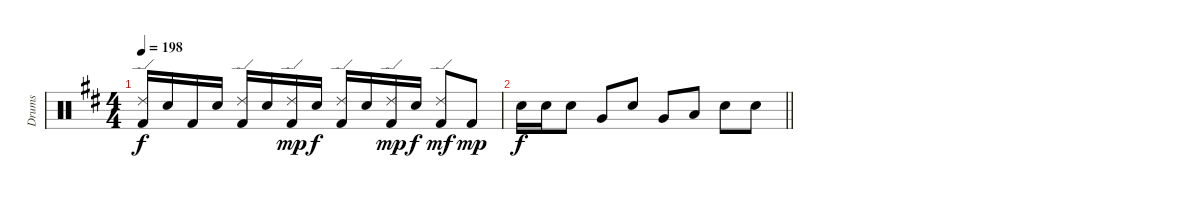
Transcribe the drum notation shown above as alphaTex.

\track ("Drums" "Drums") {instrument percussion}
\staff {score}
\articulation defaults
\ts (4 4)
\tempo 198
\clef neutral
\ks d
("Ride (edge) 2" "Kick (hit) 2").16{dy f} "Snare (hit) 2".16 "Kick (hit) 2".16 "Snare (hit) 2".16 ("Ride (edge) 2" "Kick (hit) 2").16 "Snare (hit) 2".16 ("Ride (edge) 2" "Kick (hit) 2").16{dy mp} "Snare (hit) 2".16{dy f} ("Ride (edge) 2" "Kick (hit) 2").16 "Snare (hit) 2".16 ("Ride (edge) 2" "Kick (hit) 2").16{dy mp} "Snare (hit) 2".16{dy f} ("Ride (edge) 2" "Kick (hit) 2").8{dy mf} "Kick (hit) 2".8{dy mp} |
\barLineRight lightlight "Snare (hit) 2".16{dy f} "Snare (hit) 2".16 "Snare (hit) 2".8 "Very Low Tom (hit)".8 "Snare (hit) 2".8 "Very Low Tom (hit)".8 "Low Floor Tom (hit)".8 "Snare (hit) 2".8 "Snare (hit) 2".8
